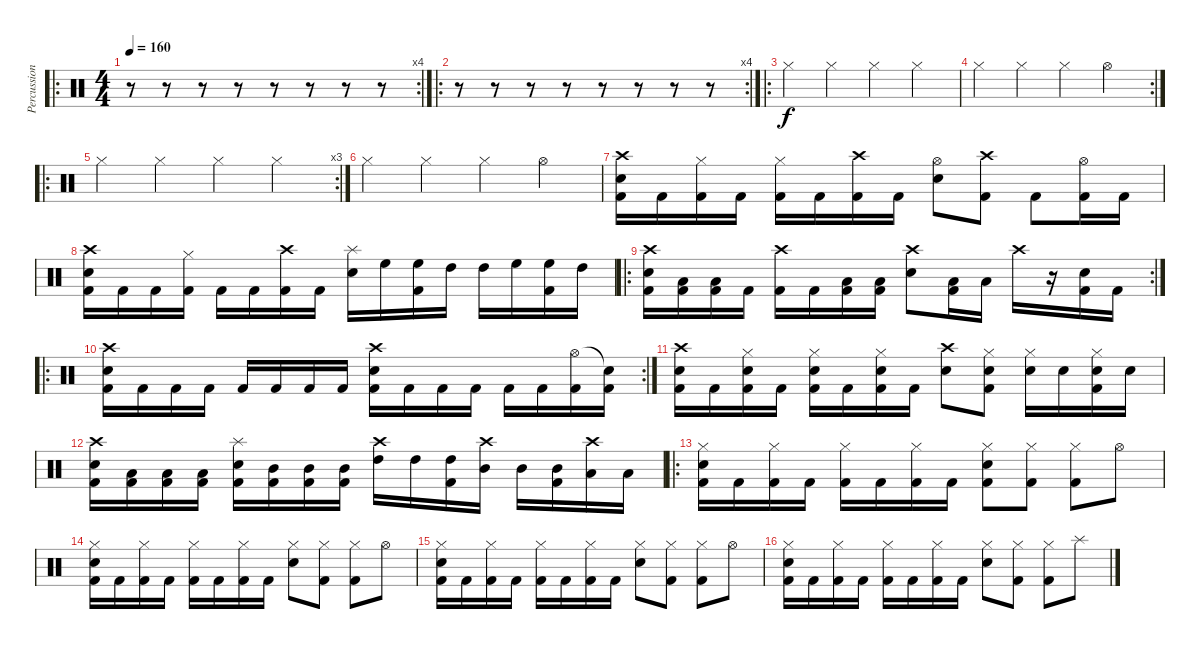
\track ("Percussion" "Percussion") {instrument percussion}
\staff {score}
\articulation defaults
\ro
\rc 4
\ts (4 4)
\tempo 160
\clef neutral
\ks c
r.8{dy f} r.8 r.8 r.8 r.8 r.8 r.8 r.8 |
\ro
\rc 4
r.8 r.8 r.8 r.8 r.8 r.8 r.8 r.8 |
\ro "Hi-Hat (closed)".4 "Hi-Hat (closed)".4 "Hi-Hat (closed)".4 "Hi-Hat (closed)".4
|
\rc 2 "Hi-Hat (closed)".4 "Hi-Hat (closed)".4 "Hi-Hat (closed)".4 "Hi-Hat (open)".4
|
\ro
\rc 3 "Hi-Hat (closed)".4 "Hi-Hat (closed)".4 "Hi-Hat (closed)".4 "Hi-Hat (closed)".4
|
"Hi-Hat (closed)".4 "Hi-Hat (closed)".4 "Hi-Hat (closed)".4 "Hi-Hat (open)".4 |
("Crash high (hit)" "Electric Snare (hit)" "Kick (hit) 2").16 "Kick (hit) 2".16 ("Hi-Hat (closed)" "Kick (hit) 2").16 "Kick (hit) 2".16 ("Hi-Hat (closed)" "Kick (hit) 2").16 "Kick (hit) 2".16 ("Crash high (hit)" "Kick (hit) 2").16 "Kick (hit) 2".16 ("Hi-Hat (open)" "Electric Snare (hit)").8 ("Crash high (hit)" "Kick (hit) 2").8 "Kick (hit) 2".8 ("Hi-Hat (open)" "Kick (hit) 2").16 "Kick (hit) 2".16 |
("Crash high (hit)" "Electric Snare (hit)" "Kick (hit) 2").16 "Kick (hit) 2".16 "Kick (hit) 2".16 ("Hi-Hat (closed)" "Kick (hit) 2").16 "Kick (hit) 2".16 "Kick (hit) 2".16 ("Crash high (hit)" "Kick (hit) 2").16 "Kick (hit) 2".16 ("Splash (hit)" "Electric Snare (hit)").16 "High Floor Tom (hit)".16 ("High Floor Tom (hit)" "Kick (hit) 2").16 "High Tom (hit)".16 "High Tom (hit)".16 "High Floor Tom (hit)".16 ("High Floor Tom (hit)" "Kick (hit) 2").16 "High Tom (hit)".16 |
\ro
\rc 2
("Crash high (hit)" "Electric Snare (hit)" "Kick (hit) 2").16 ("Low Tom (hit)" "Kick (hit) 2").16 ("Low Tom (hit)" "Kick (hit) 2").16 "Kick (hit) 2".16 ("Crash high (hit)" "Kick (hit) 2").16 "Kick (hit) 2".16 ("Low Tom (hit)" "Kick (hit) 2").16 ("Low Tom (hit)" "Kick (hit) 2").16 ("Crash high (hit)" "Electric Snare (hit)").8 ("Low Tom (hit)" "Kick (hit) 2").16 "Low Tom (hit)".16 "Crash high (hit)".16 r.16 ("Electric Snare (hit)" "Kick (hit) 2").16 "Kick (hit) 2".16 |
\ro
\rc 2
("Crash high (hit)" "Electric Snare (hit)" "Kick (hit) 2").16 "Kick (hit) 2".16 "Kick (hit) 2".16 "Kick (hit) 2".16 "Kick (hit) 2".16 "Kick (hit) 2".16 "Kick (hit) 2".16 "Kick (hit) 2".16 ("Crash high (hit)" "Electric Snare (hit)" "Kick (hit) 2").16 "Kick (hit) 2".16 "Kick (hit) 2".16 "Kick (hit) 2".16 "Kick (hit) 2".16 "Kick (hit) 2".16 ("Hi-Hat (open)" "Kick (hit) 2").16 ("Snare (hit)"{t} "Kick (hit) 2").16 |
("Crash high (hit)" "Electric Snare (hit)" "Kick (hit) 2").16 "Kick (hit) 2".16 ("Hi-Hat (closed)" "Electric Snare (hit)" "Kick (hit) 2").16 "Kick (hit) 2".16 ("Hi-Hat (closed)" "Electric Snare (hit)" "Kick (hit) 2").16 "Kick (hit) 2".16 ("Hi-Hat (closed)" "Electric Snare (hit)" "Kick (hit) 2").16 "Kick (hit) 2".16 ("Crash high (hit)" "Electric Snare (hit)").8 ("Hi-Hat (closed)" "Electric Snare (hit)" "Kick (hit) 2").8 ("Hi-Hat (closed)" "Electric Snare (hit)").16 "Electric Snare (hit)".16 ("Hi-Hat (closed)" "Electric Snare (hit)" "Kick (hit) 2").16 "Electric Snare (hit)".16 |
("Crash high (hit)" "Electric Snare (hit)" "Kick (hit) 2").16 ("Low Tom (hit)" "Kick (hit) 2").16 ("Low Tom (hit)" "Kick (hit) 2").16 ("Low Tom (hit)" "Kick (hit) 2").16 ("Splash (hit)" "Electric Snare (hit)" "Kick (hit) 2").16 ("Mid Tom (hit)" "Kick (hit) 2").16 ("Mid Tom (hit)" "Kick (hit) 2").16 ("Mid Tom (hit)" "Kick (hit) 2").16 ("Crash high (hit)" "High Tom (hit)").16 "High Tom (hit)".16 ("High Tom (hit)" "Kick (hit) 2").16 ("Crash high (hit)" "Mid Tom (hit)").16 "Mid Tom (hit)".16 ("Mid Tom (hit)" "Kick (hit) 2").16 ("Crash high (hit)" "Low Tom (hit)").16 "Low Tom (hit)".16 |
\ro
("Hi-Hat (closed)" "Electric Snare (hit)" "Kick (hit) 2").16 "Kick (hit) 2".16 ("Hi-Hat (closed)" "Kick (hit) 2").16 "Kick (hit) 2".16 ("Hi-Hat (closed)" "Kick (hit) 2").16 "Kick (hit) 2".16 ("Hi-Hat (closed)" "Kick (hit) 2").16 "Kick (hit) 2".16 ("Hi-Hat (closed)" "Electric Snare (hit)" "Kick (hit) 2").8 ("Hi-Hat (closed)" "Kick (hit) 2").8 ("Hi-Hat (closed)" "Kick (hit) 2").8 "Hi-Hat (open)".8 |
("Hi-Hat (closed)" "Electric Snare (hit)" "Kick (hit) 2").16 "Kick (hit) 2".16 ("Hi-Hat (closed)" "Kick (hit) 2").16 "Kick (hit) 2".16 ("Hi-Hat (closed)" "Kick (hit) 2").16 "Kick (hit) 2".16 ("Hi-Hat (closed)" "Kick (hit) 2").16 "Kick (hit) 2".16 ("Hi-Hat (closed)" "Electric Snare (hit)").8 ("Hi-Hat (closed)" "Kick (hit) 2").8 ("Hi-Hat (closed)" "Kick (hit) 2").8 "Hi-Hat (open)".8 |
("Hi-Hat (closed)" "Electric Snare (hit)" "Kick (hit) 2").16 "Kick (hit) 2".16 ("Hi-Hat (closed)" "Kick (hit) 2").16 "Kick (hit) 2".16 ("Hi-Hat (closed)" "Kick (hit) 2").16 "Kick (hit) 2".16 ("Hi-Hat (closed)" "Kick (hit) 2").16 "Kick (hit) 2".16 ("Hi-Hat (closed)" "Electric Snare (hit)").8 ("Hi-Hat (closed)" "Kick (hit) 2").8 ("Hi-Hat (closed)" "Kick (hit) 2").8 "Hi-Hat (open)".8 |
("Hi-Hat (closed)" "Electric Snare (hit)" "Kick (hit) 2").16 "Kick (hit) 2".16 ("Hi-Hat (closed)" "Kick (hit) 2").16 "Kick (hit) 2".16 ("Hi-Hat (closed)" "Kick (hit) 2").16 "Kick (hit) 2".16 ("Hi-Hat (closed)" "Kick (hit) 2").16 "Kick (hit) 2".16 ("Hi-Hat (closed)" "Electric Snare (hit)").8 ("Hi-Hat (closed)" "Kick (hit) 2").8 ("Hi-Hat (closed)" "Kick (hit) 2").8 "Splash (hit)".8
